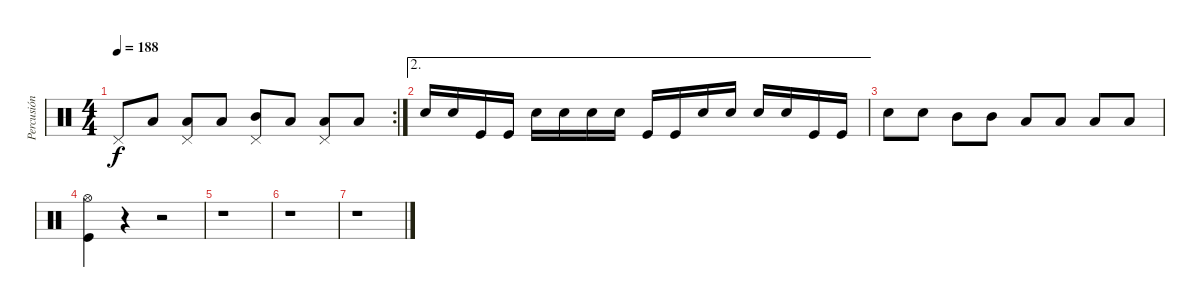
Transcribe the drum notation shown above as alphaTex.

\track ("Percusión" "Percusión") {instrument percussion}
\staff {score}
\articulation defaults
\rc 2
\ts (4 4)
\tempo 188
\clef neutral
\ks c "Pedal Hi-Hat (hit)".8{dy f} "Low Tom (hit)".8
("Low Tom (hit)" "Pedal Hi-Hat (hit)").8 "Low Tom (hit)".8 ("Mid Tom (hit)" "Pedal Hi-Hat (hit)").8 "Low Tom (hit)".8 ("Low Tom (hit)" "Pedal Hi-Hat (hit)").8 "Low Tom (hit)".8 |
\ae 2 "Snare (hit) 2".16 "Snare (hit) 2".16 "Kick (hit)".16 "Kick (hit)".16 "Snare (hit) 2".16 "Snare (hit) 2".16 "Snare (hit) 2".16 "Snare (hit) 2".16 "Kick (hit)".16 "Kick (hit)".16 "Snare (hit) 2".16 "Snare (hit) 2".16 "Snare (hit) 2".16 "Snare (hit) 2".16 "Kick (hit)".16 "Kick (hit)".16
|
"Snare (hit) 2".8 "Snare (hit) 2".8 "Mid Tom (hit)".8 "Mid Tom (hit)".8 "Low Tom (hit)".8 "Low Tom (hit)".8 "Low Tom (hit)".8 "Low Tom (hit)".8 |
("Hi-Hat (open)" "Kick (hit)").4 r.4 r.2 |
r.1 |
r.1 |
r.1
